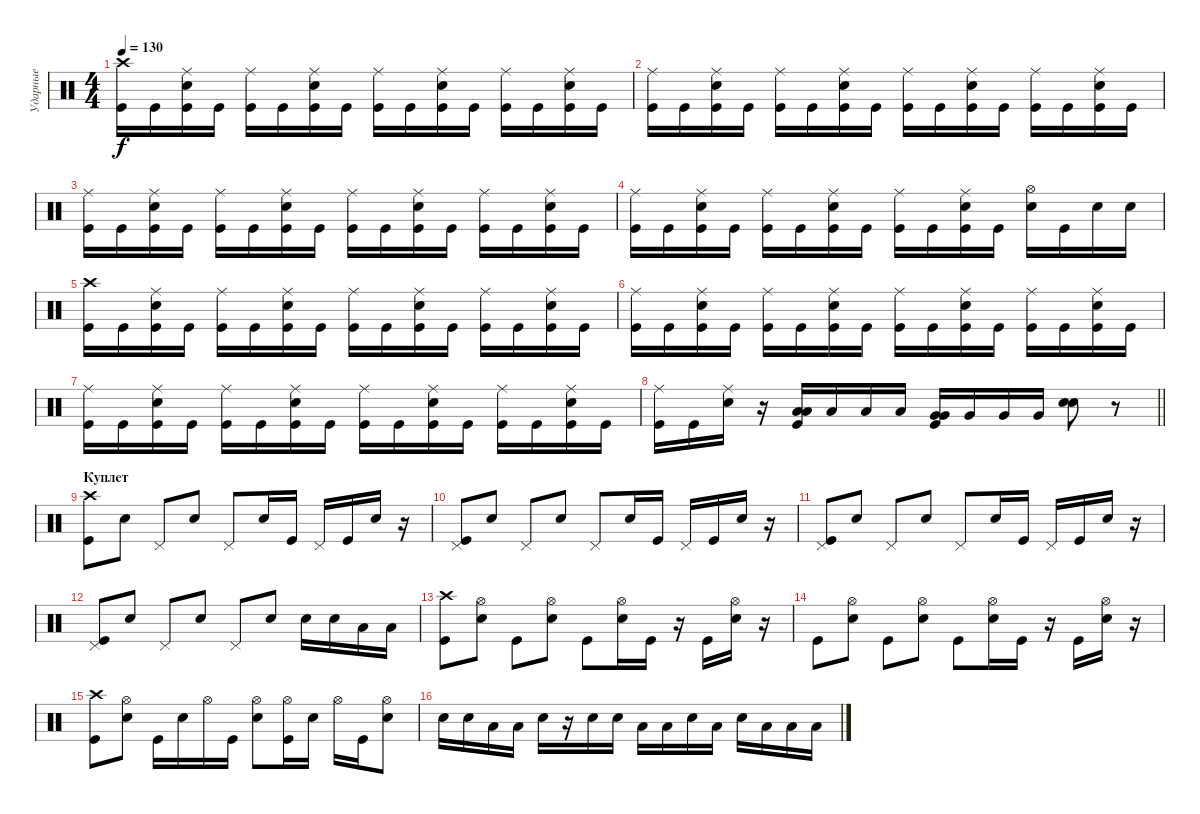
\track ("Ударные" "Ударные") {instrument percussion}
\staff {score}
\articulation defaults
\ts (4 4)
\tempo 130
\clef neutral
\ks c
("Kick (hit)" "Crash high (hit)").16{dy f} "Kick (hit)".16 ("Kick (hit)" "Snare (hit) 2" "Ride (middle)").16 "Kick (hit)".16 ("Kick (hit)" "Ride (middle)").16 "Kick (hit)".16 ("Kick (hit)" "Snare (hit) 2" "Ride (middle)").16 "Kick (hit)".16 ("Kick (hit)" "Ride (middle)").16 "Kick (hit)".16 ("Kick (hit)" "Snare (hit) 2" "Ride (middle)").16 "Kick (hit)".16 ("Kick (hit)" "Ride (middle)").16 "Kick (hit)".16 ("Kick (hit)" "Snare (hit) 2" "Ride (middle)").16 "Kick (hit)".16 |
("Kick (hit)" "Ride (middle)").16 "Kick (hit)".16 ("Kick (hit)" "Snare (hit) 2" "Ride (middle)").16 "Kick (hit)".16 ("Kick (hit)" "Ride (middle)").16 "Kick (hit)".16 ("Kick (hit)" "Snare (hit) 2" "Ride (middle)").16 "Kick (hit)".16 ("Kick (hit)" "Ride (middle)").16 "Kick (hit)".16 ("Kick (hit)" "Snare (hit) 2" "Ride (middle)").16 "Kick (hit)".16 ("Kick (hit)" "Ride (middle)").16 "Kick (hit)".16 ("Kick (hit)" "Snare (hit) 2" "Ride (middle)").16 "Kick (hit)".16 |
("Kick (hit)" "Ride (middle)").16 "Kick (hit)".16 ("Kick (hit)" "Snare (hit) 2" "Ride (middle)").16 "Kick (hit)".16 ("Kick (hit)" "Ride (middle)").16 "Kick (hit)".16 ("Kick (hit)" "Snare (hit) 2" "Ride (middle)").16 "Kick (hit)".16 ("Kick (hit)" "Ride (middle)").16 "Kick (hit)".16 ("Kick (hit)" "Snare (hit) 2" "Ride (middle)").16 "Kick (hit)".16 ("Kick (hit)" "Ride (middle)").16 "Kick (hit)".16 ("Kick (hit)" "Snare (hit) 2" "Ride (middle)").16 "Kick (hit)".16 |
("Kick (hit)" "Ride (middle)").16 "Kick (hit)".16 ("Kick (hit)" "Snare (hit) 2" "Ride (middle)").16 "Kick (hit)".16 ("Kick (hit)" "Ride (middle)").16 "Kick (hit)".16 ("Kick (hit)" "Snare (hit) 2" "Ride (middle)").16 "Kick (hit)".16 ("Kick (hit)" "Ride (middle)").16 "Kick (hit)".16 ("Kick (hit)" "Snare (hit) 2" "Ride (middle)").16 "Kick (hit)".16 ("Snare (hit) 2" "Hi-Hat (open)").16 "Kick (hit)".16 "Snare (hit) 2".16 "Snare (hit) 2".16 |
("Kick (hit)" "Crash high (hit)").16 "Kick (hit)".16 ("Kick (hit)" "Snare (hit) 2" "Ride (middle)").16 "Kick (hit)".16 ("Kick (hit)" "Ride (middle)").16 "Kick (hit)".16 ("Kick (hit)" "Snare (hit) 2" "Ride (middle)").16 "Kick (hit)".16 ("Kick (hit)" "Ride (middle)").16 "Kick (hit)".16 ("Kick (hit)" "Snare (hit) 2" "Ride (middle)").16 "Kick (hit)".16 ("Kick (hit)" "Ride (middle)").16 "Kick (hit)".16 ("Kick (hit)" "Snare (hit) 2" "Ride (middle)").16 "Kick (hit)".16 |
("Kick (hit)" "Ride (middle)").16 "Kick (hit)".16 ("Kick (hit)" "Snare (hit) 2" "Ride (middle)").16 "Kick (hit)".16 ("Kick (hit)" "Ride (middle)").16 "Kick (hit)".16 ("Kick (hit)" "Snare (hit) 2" "Ride (middle)").16 "Kick (hit)".16 ("Kick (hit)" "Ride (middle)").16 "Kick (hit)".16 ("Kick (hit)" "Snare (hit) 2" "Ride (middle)").16 "Kick (hit)".16 ("Kick (hit)" "Ride (middle)").16 "Kick (hit)".16 ("Kick (hit)" "Snare (hit) 2" "Ride (middle)").16 "Kick (hit)".16 |
("Kick (hit)" "Ride (middle)").16 "Kick (hit)".16 ("Kick (hit)" "Snare (hit) 2" "Ride (middle)").16 "Kick (hit)".16 ("Kick (hit)" "Ride (middle)").16 "Kick (hit)".16 ("Kick (hit)" "Snare (hit) 2" "Ride (middle)").16 "Kick (hit)".16 ("Kick (hit)" "Ride (middle)").16 "Kick (hit)".16 ("Kick (hit)" "Snare (hit) 2" "Ride (middle)").16 "Kick (hit)".16 ("Kick (hit)" "Ride (middle)").16 "Kick (hit)".16 ("Kick (hit)" "Snare (hit) 2" "Ride (middle)").16 "Kick (hit)".16 |
\barLineRight lightlight
("Kick (hit)" "Ride (middle)").16 "Kick (hit)".16 ("Snare (hit) 2" "Ride (middle)").16 r.16 ("Kick (hit)" "Low Tom (hit)" "Low Tom (hit)").16{bd 60} "Low Tom (hit)".16 "Low Tom (hit)".16 "Low Tom (hit)".16 ("Kick (hit)" "Very Low Tom (hit)" "Very Low Tom (hit)").16{bd 60} "Very Low Tom (hit)".16 "Very Low Tom (hit)".16 "Very Low Tom (hit)".16 ("Snare (hit) 2" "Snare (hit) 2").8 r.8 |
\section ("" "Куплет")
("Kick (hit)" "Crash high (hit)").8 "Snare (hit) 2".8 "Pedal Hi-Hat (hit)".8 "Snare (hit) 2".8 "Pedal Hi-Hat (hit)".8 "Snare (hit) 2".16 "Kick (hit)".16 "Pedal Hi-Hat (hit)".16 "Kick (hit)".16 "Snare (hit) 2".16 r.16 |
("Kick (hit)" "Pedal Hi-Hat (hit)").8 "Snare (hit) 2".8 "Pedal Hi-Hat (hit)".8 "Snare (hit) 2".8 "Pedal Hi-Hat (hit)".8 "Snare (hit) 2".16 "Kick (hit)".16 "Pedal Hi-Hat (hit)".16 "Kick (hit)".16 "Snare (hit) 2".16 r.16 |
("Kick (hit)" "Pedal Hi-Hat (hit)").8 "Snare (hit) 2".8 "Pedal Hi-Hat (hit)".8 "Snare (hit) 2".8 "Pedal Hi-Hat (hit)".8 "Snare (hit) 2".16 "Kick (hit)".16 "Pedal Hi-Hat (hit)".16 "Kick (hit)".16 "Snare (hit) 2".16 r.16 |
("Kick (hit)" "Pedal Hi-Hat (hit)").8 "Snare (hit) 2".8 "Pedal Hi-Hat (hit)".8 "Snare (hit) 2".8 "Pedal Hi-Hat (hit)".8 "Snare (hit) 2".8 "Snare (hit) 2".16 "Snare (hit) 2".16 "Low Tom (hit)".16 "Low Tom (hit)".16 |
("Kick (hit)" "Crash high (hit)").8 ("Snare (hit) 2" "Hi-Hat (open)").8 "Kick (hit)".8 ("Snare (hit) 2" "Hi-Hat (open)").8 "Kick (hit)".8 ("Snare (hit) 2" "Hi-Hat (open)").16 "Kick (hit)".16 r.16 "Kick (hit)".16 ("Snare (hit) 2" "Hi-Hat (open)").16 r.16 |
"Kick (hit)".8 ("Snare (hit) 2" "Hi-Hat (open)").8 "Kick (hit)".8 ("Snare (hit) 2" "Hi-Hat (open)").8 "Kick (hit)".8 ("Snare (hit) 2" "Hi-Hat (open)").16 "Kick (hit)".16 r.16 "Kick (hit)".16 ("Snare (hit) 2" "Hi-Hat (open)").16 r.16 |
("Kick (hit)" "Crash high (hit)").8 ("Snare (hit) 2" "Hi-Hat (open)").8 "Kick (hit)".16 "Snare (hit) 2".16 "Hi-Hat (open)".16 "Kick (hit)".16 ("Snare (hit) 2" "Hi-Hat (open)").8 ("Kick (hit)" "Hi-Hat (open)").16 "Snare (hit) 2".16 "Hi-Hat (open)".16 "Kick (hit)".16 ("Snare (hit) 2" "Hi-Hat (open)").8 |
"Snare (hit) 2".16 "Snare (hit) 2".16 "Low Tom (hit)".16 "Low Tom (hit)".16 "Snare (hit) 2".16 r.16 "Snare (hit) 2".16 "Snare (hit) 2".16 "Low Tom (hit)".16 "Low Tom (hit)".16 "Snare (hit) 2".16 "Low Tom (hit)".16 "Snare (hit) 2".16 "Low Tom (hit)".16 "Low Tom (hit)".16 "Low Tom (hit)".16
